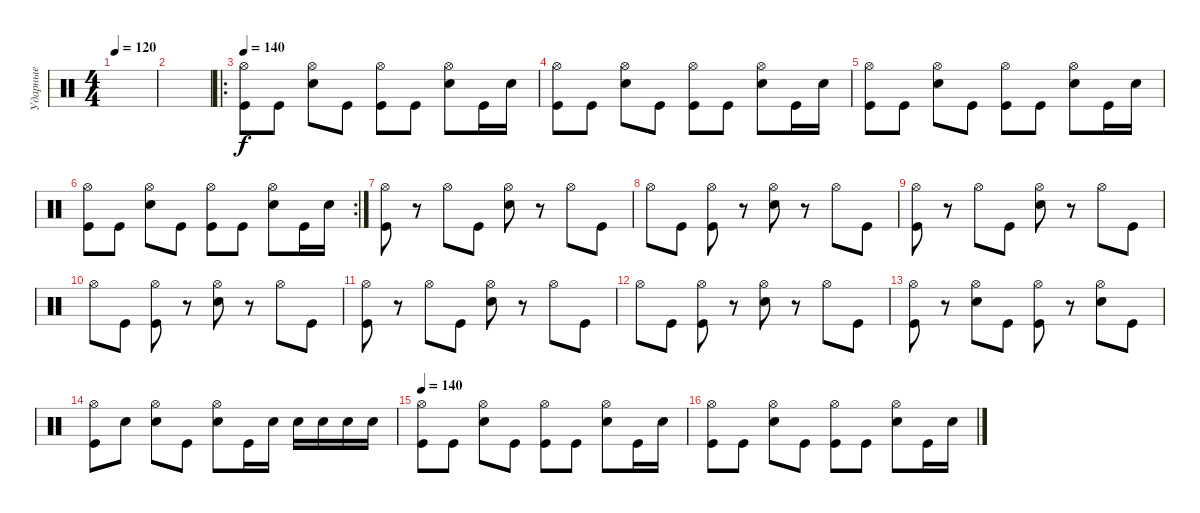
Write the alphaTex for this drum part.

\track ("Ударные" "Ударные") {instrument percussion}
\staff {score}
\articulation defaults
\ts (4 4)
\tempo 120
\clef neutral
\ks c
|
|
\ro
\tempo 140
("Hi-Hat (open)" "Kick (hit)").8{volume 16} "Kick (hit)".8 ("Hi-Hat (open)" "Snare (hit) 2").8 "Kick (hit)".8 ("Hi-Hat (open)" "Kick (hit)").8 "Kick (hit)".8 ("Hi-Hat (open)" "Snare (hit) 2").8 "Kick (hit)".16 "Snare (hit) 2".16 |
("Hi-Hat (open)" "Kick (hit)").8 "Kick (hit)".8 ("Hi-Hat (open)" "Snare (hit) 2").8 "Kick (hit)".8 ("Hi-Hat (open)" "Kick (hit)").8 "Kick (hit)".8 ("Hi-Hat (open)" "Snare (hit) 2").8 "Kick (hit)".16 "Snare (hit) 2".16 |
("Hi-Hat (open)" "Kick (hit)").8 "Kick (hit)".8 ("Hi-Hat (open)" "Snare (hit) 2").8 "Kick (hit)".8 ("Hi-Hat (open)" "Kick (hit)").8 "Kick (hit)".8 ("Hi-Hat (open)" "Snare (hit) 2").8 "Kick (hit)".16 "Snare (hit) 2".16 |
\rc 2
("Hi-Hat (open)" "Kick (hit)").8 "Kick (hit)".8 ("Hi-Hat (open)" "Snare (hit) 2").8 "Kick (hit)".8 ("Hi-Hat (open)" "Kick (hit)").8 "Kick (hit)".8 ("Hi-Hat (open)" "Snare (hit) 2").8 "Kick (hit)".16 "Snare (hit) 2".16 |
("Hi-Hat (open)" "Kick (hit)").8{volume 16} r.8 "Hi-Hat (open)".8 "Kick (hit)".8 ("Hi-Hat (open)" "Snare (hit) 2").8 r.8 "Hi-Hat (open)".8 "Kick (hit)".8 |
"Hi-Hat (open)".8 "Kick (hit)".8 ("Hi-Hat (open)" "Kick (hit)").8 r.8 ("Hi-Hat (open)" "Snare (hit) 2").8 r.8 "Hi-Hat (open)".8 "Kick (hit)".8 |
("Hi-Hat (open)" "Kick (hit)").8 r.8 "Hi-Hat (open)".8 "Kick (hit)".8 ("Hi-Hat (open)" "Snare (hit) 2").8 r.8 "Hi-Hat (open)".8 "Kick (hit)".8 |
"Hi-Hat (open)".8 "Kick (hit)".8 ("Hi-Hat (open)" "Kick (hit)").8 r.8 ("Hi-Hat (open)" "Snare (hit) 2").8 r.8 "Hi-Hat (open)".8 "Kick (hit)".8 |
("Hi-Hat (open)" "Kick (hit)").8 r.8 "Hi-Hat (open)".8 "Kick (hit)".8 ("Hi-Hat (open)" "Snare (hit) 2").8 r.8 "Hi-Hat (open)".8 "Kick (hit)".8 |
"Hi-Hat (open)".8 "Kick (hit)".8 ("Hi-Hat (open)" "Kick (hit)").8 r.8 ("Hi-Hat (open)" "Snare (hit) 2").8 r.8 "Hi-Hat (open)".8 "Kick (hit)".8 |
("Hi-Hat (open)" "Kick (hit)").8 r.8 ("Hi-Hat (open)" "Snare (hit) 2").8 "Kick (hit)".8 ("Hi-Hat (open)" "Kick (hit)").8 r.8 ("Hi-Hat (open)" "Snare (hit) 2").8 "Kick (hit)".8 |
("Hi-Hat (open)" "Kick (hit)").8 "Snare (hit) 2".8 ("Hi-Hat (open)" "Snare (hit) 2").8 "Kick (hit)".8 ("Hi-Hat (open)" "Snare (hit) 2").8 "Kick (hit)".16 "Snare (hit) 2".16 "Snare (hit) 2".16 "Snare (hit) 2".16 "Snare (hit) 2".16 "Snare (hit) 2".16 |
\tempo 140
("Hi-Hat (open)" "Kick (hit)").8 "Kick (hit)".8 ("Hi-Hat (open)" "Snare (hit) 2").8 "Kick (hit)".8 ("Hi-Hat (open)" "Kick (hit)").8 "Kick (hit)".8 ("Hi-Hat (open)" "Snare (hit) 2").8 "Kick (hit)".16 "Snare (hit) 2".16 |
("Hi-Hat (open)" "Kick (hit)").8 "Kick (hit)".8 ("Hi-Hat (open)" "Snare (hit) 2").8 "Kick (hit)".8 ("Hi-Hat (open)" "Kick (hit)").8 "Kick (hit)".8 ("Hi-Hat (open)" "Snare (hit) 2").8 "Kick (hit)".16 "Snare (hit) 2".16
